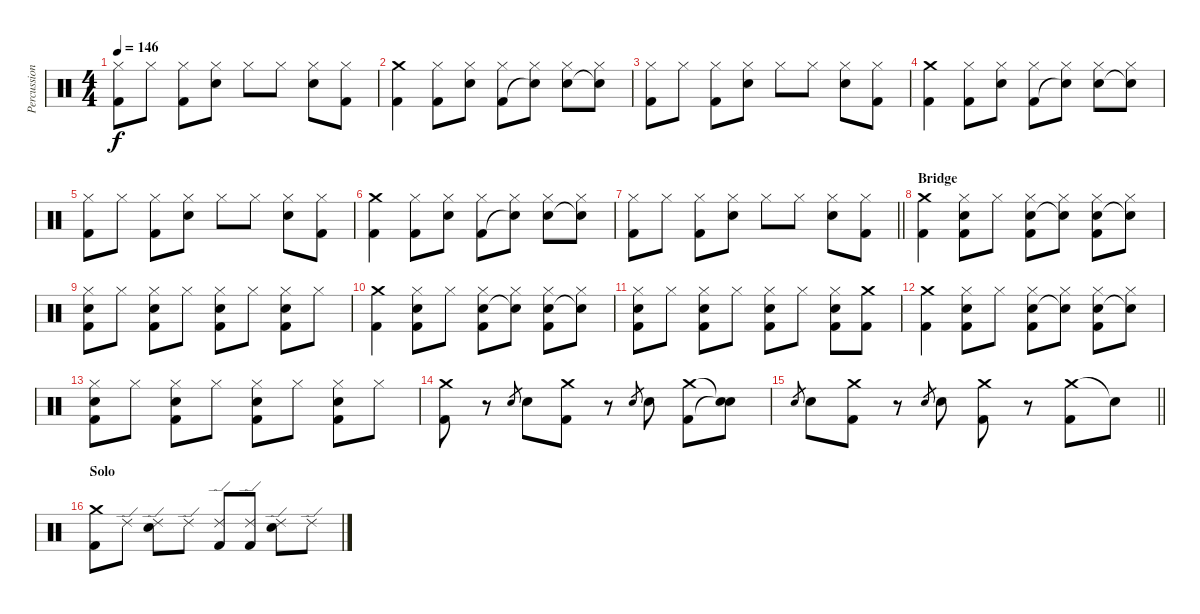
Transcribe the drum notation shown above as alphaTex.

\track ("Percussion" "Percussion") {instrument percussion}
\staff {score}
\articulation defaults
\ts (4 4)
\tempo 146
\clef neutral
\ks c
("Hi-Hat (closed)" "Kick (hit) 2").8{dy f} "Hi-Hat (closed)".8 ("Hi-Hat (closed)" "Kick (hit) 2").8 ("Hi-Hat (closed)" "Snare (hit) 2").8 "Hi-Hat (closed)".8 "Hi-Hat (closed)".8 ("Hi-Hat (closed)" "Snare (hit) 2").8 ("Hi-Hat (closed)" "Kick (hit) 2").8 |
("Crash medium (hit)" "Kick (hit) 2").4 ("Hi-Hat (closed)" "Kick (hit) 2").8 ("Hi-Hat (closed)" "Snare (hit) 2").8 ("Hi-Hat (closed)" "Kick (hit) 2").8 ("Hi-Hat (closed)" "Snare (hit)"{t}).8 ("Hi-Hat (closed)" "Snare (hit) 2").8 ("Hi-Hat (closed)" "Snare (hit)"{t}).8 |
("Hi-Hat (closed)" "Kick (hit) 2").8 "Hi-Hat (closed)".8 ("Hi-Hat (closed)" "Kick (hit) 2").8 ("Hi-Hat (closed)" "Snare (hit) 2").8 "Hi-Hat (closed)".8 "Hi-Hat (closed)".8 ("Hi-Hat (closed)" "Snare (hit) 2").8 ("Hi-Hat (closed)" "Kick (hit) 2").8 |
("Crash medium (hit)" "Kick (hit) 2").4 ("Hi-Hat (closed)" "Kick (hit) 2").8 ("Hi-Hat (closed)" "Snare (hit) 2").8 ("Hi-Hat (closed)" "Kick (hit) 2").8 ("Hi-Hat (closed)" "Snare (hit)"{t}).8 ("Hi-Hat (closed)" "Snare (hit) 2").8 ("Hi-Hat (closed)" "Snare (hit)"{t}).8 |
("Hi-Hat (closed)" "Kick (hit) 2").8 "Hi-Hat (closed)".8 ("Hi-Hat (closed)" "Kick (hit) 2").8 ("Hi-Hat (closed)" "Snare (hit) 2").8 "Hi-Hat (closed)".8 "Hi-Hat (closed)".8 ("Hi-Hat (closed)" "Snare (hit) 2").8 ("Hi-Hat (closed)" "Kick (hit) 2").8 |
("Crash medium (hit)" "Kick (hit) 2").4 ("Hi-Hat (closed)" "Kick (hit) 2").8 ("Hi-Hat (closed)" "Snare (hit) 2").8 ("Hi-Hat (closed)" "Kick (hit) 2").8 ("Hi-Hat (closed)" "Snare (hit)"{t}).8 ("Hi-Hat (closed)" "Snare (hit) 2").8 ("Hi-Hat (closed)" "Snare (hit)"{t}).8 |
\barLineRight lightlight
("Hi-Hat (closed)" "Kick (hit) 2").8 "Hi-Hat (closed)".8 ("Hi-Hat (closed)" "Kick (hit) 2").8 ("Hi-Hat (closed)" "Snare (hit) 2").8 "Hi-Hat (closed)".8 "Hi-Hat (closed)".8 ("Hi-Hat (closed)" "Snare (hit) 2").8 ("Hi-Hat (closed)" "Kick (hit) 2").8 |
\section ("" "Bridge")
("Crash medium (hit)" "Kick (hit) 2").4 ("Hi-Hat (closed)" "Snare (hit) 2" "Kick (hit) 2").8 "Hi-Hat (closed)".8 ("Hi-Hat (closed)" "Snare (hit) 2" "Kick (hit) 2").8 ("Hi-Hat (closed)" "Snare (hit)"{t}).8 ("Hi-Hat (closed)" "Snare (hit) 2" "Kick (hit) 2").8 ("Hi-Hat (closed)" "Snare (hit)"{t}).8 |
("Hi-Hat (closed)" "Snare (hit) 2" "Kick (hit) 2").8 "Hi-Hat (closed)".8 ("Hi-Hat (closed)" "Snare (hit) 2" "Kick (hit) 2").8 "Hi-Hat (closed)".8 ("Hi-Hat (closed)" "Snare (hit) 2" "Kick (hit) 2").8 "Hi-Hat (closed)".8 ("Hi-Hat (closed)" "Snare (hit) 2" "Kick (hit) 2").8 "Hi-Hat (closed)".8 |
("Crash medium (hit)" "Kick (hit) 2").4 ("Hi-Hat (closed)" "Snare (hit) 2" "Kick (hit) 2").8 "Hi-Hat (closed)".8 ("Hi-Hat (closed)" "Snare (hit) 2" "Kick (hit) 2").8 ("Hi-Hat (closed)" "Snare (hit)"{t}).8 ("Hi-Hat (closed)" "Snare (hit) 2" "Kick (hit) 2").8 ("Hi-Hat (closed)" "Snare (hit)"{t}).8 |
("Hi-Hat (closed)" "Snare (hit) 2" "Kick (hit) 2").8 "Hi-Hat (closed)".8 ("Hi-Hat (closed)" "Snare (hit) 2" "Kick (hit) 2").8 "Hi-Hat (closed)".8 ("Hi-Hat (closed)" "Snare (hit) 2" "Kick (hit) 2").8 "Hi-Hat (closed)".8 ("Hi-Hat (closed)" "Snare (hit) 2" "Kick (hit) 2").8 ("Crash medium (hit)" "Kick (hit) 2").8 |
("Crash medium (hit)" "Kick (hit) 2").4 ("Hi-Hat (closed)" "Snare (hit) 2" "Kick (hit) 2").8 "Hi-Hat (closed)".8 ("Hi-Hat (closed)" "Snare (hit) 2" "Kick (hit) 2").8 ("Hi-Hat (closed)" "Snare (hit)"{t}).8 ("Hi-Hat (closed)" "Snare (hit) 2" "Kick (hit) 2").8 ("Hi-Hat (closed)" "Snare (hit)"{t}).8 |
("Hi-Hat (closed)" "Snare (hit) 2" "Kick (hit) 2").8 "Hi-Hat (closed)".8 ("Hi-Hat (closed)" "Snare (hit) 2" "Kick (hit) 2").8 "Hi-Hat (closed)".8 ("Hi-Hat (closed)" "Snare (hit) 2" "Kick (hit) 2").8 "Hi-Hat (closed)".8 ("Hi-Hat (closed)" "Snare (hit) 2" "Kick (hit) 2").8 "Hi-Hat (closed)".8 |
("Crash medium (hit)" "Kick (hit) 2").8 r.8 "Snare (hit) 2".8{gr} "Snare (hit) 2".8 ("Crash medium (hit)" "Kick (hit) 2").8 r.8 "Snare (hit) 2".8{gr} "Snare (hit) 2".8 ("Crash medium (hit)" "Kick (hit) 2").8 ("Snare (hit)"{t} "Snare (hit)"{t}).8 |
\barLineRight lightlight "Snare (hit) 2".8{gr} "Snare (hit) 2".8
("Crash medium (hit)" "Kick (hit) 2").8 r.8 "Snare (hit) 2".8{gr} "Snare (hit) 2".8 ("Crash medium (hit)" "Kick (hit) 2").8 r.8 ("Crash medium (hit)" "Kick (hit) 2").8 "Snare (hit)"{t}.8 |
\section ("" "Solo")
("Crash medium (hit)" "Kick (hit) 2").8 "Ride (edge) 2".8 ("Ride (edge) 2" "Snare (hit) 2").8 "Ride (edge) 2".8 ("Ride (edge) 2" "Kick (hit) 2").8 ("Ride (edge) 2" "Kick (hit) 2").8 ("Ride (edge) 2" "Snare (hit) 2").8 "Ride (edge) 2".8
